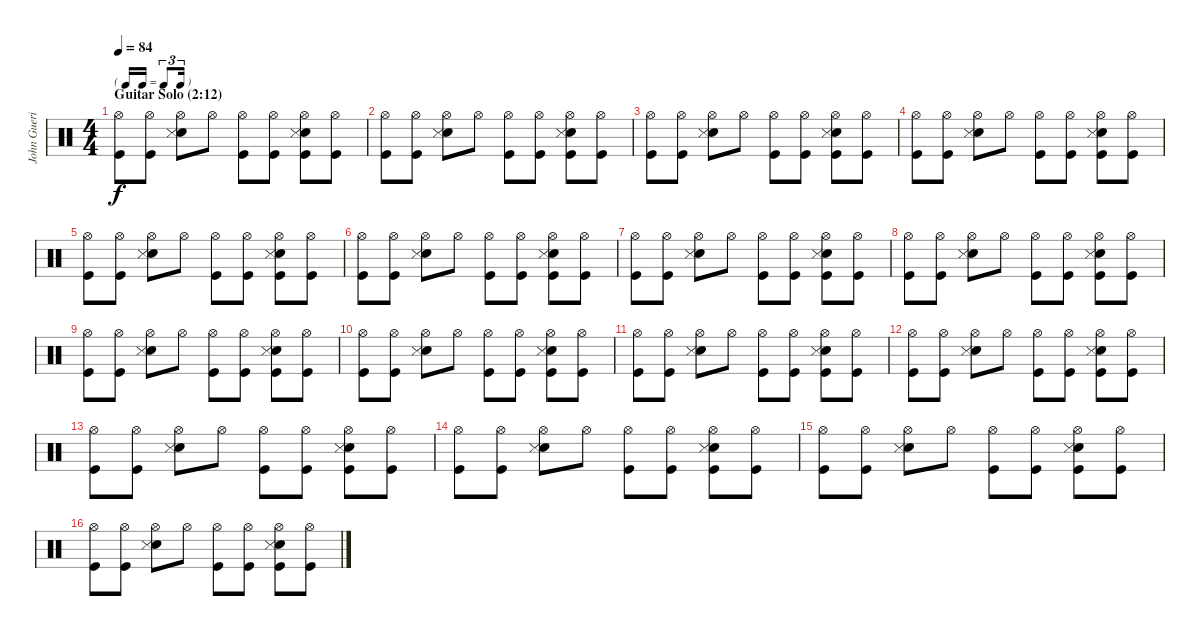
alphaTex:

\track ("John Guerin - Drums" "John Gueri") {instrument percussion}
\staff {score}
\articulation defaults
\ts (4 4)
\tf triplet16th
\section ("" "Guitar Solo (2:12)")
\tempo 84
\clef neutral
\ks c
("Hi-Hat (open)" "Kick (hit)").8{dy f} ("Hi-Hat (open)" "Kick (hit)").8 ("Hi-Hat (open)" "Electric Snare (hit)" "Snare (side stick) 3").8 "Hi-Hat (open)".8 ("Hi-Hat (open)" "Kick (hit)").8 ("Hi-Hat (open)" "Kick (hit)").8 ("Hi-Hat (open)" "Electric Snare (hit)" "Snare (side stick) 3" "Kick (hit)").8 ("Hi-Hat (open)" "Kick (hit)").8 |
("Hi-Hat (open)" "Kick (hit)").8 ("Hi-Hat (open)" "Kick (hit)").8 ("Hi-Hat (open)" "Electric Snare (hit)" "Snare (side stick) 3").8 "Hi-Hat (open)".8 ("Hi-Hat (open)" "Kick (hit)").8 ("Hi-Hat (open)" "Kick (hit)").8 ("Hi-Hat (open)" "Electric Snare (hit)" "Snare (side stick) 3" "Kick (hit)").8 ("Hi-Hat (open)" "Kick (hit)").8 |
("Hi-Hat (open)" "Kick (hit)").8 ("Hi-Hat (open)" "Kick (hit)").8 ("Hi-Hat (open)" "Electric Snare (hit)" "Snare (side stick) 3").8 "Hi-Hat (open)".8 ("Hi-Hat (open)" "Kick (hit)").8 ("Hi-Hat (open)" "Kick (hit)").8 ("Hi-Hat (open)" "Electric Snare (hit)" "Snare (side stick) 3" "Kick (hit)").8 ("Hi-Hat (open)" "Kick (hit)").8 |
("Hi-Hat (open)" "Kick (hit)").8 ("Hi-Hat (open)" "Kick (hit)").8 ("Hi-Hat (open)" "Electric Snare (hit)" "Snare (side stick) 3").8 "Hi-Hat (open)".8 ("Hi-Hat (open)" "Kick (hit)").8 ("Hi-Hat (open)" "Kick (hit)").8 ("Hi-Hat (open)" "Electric Snare (hit)" "Snare (side stick) 3" "Kick (hit)").8 ("Hi-Hat (open)" "Kick (hit)").8 |
("Hi-Hat (open)" "Kick (hit)").8 ("Hi-Hat (open)" "Kick (hit)").8 ("Hi-Hat (open)" "Electric Snare (hit)" "Snare (side stick) 3").8 "Hi-Hat (open)".8 ("Hi-Hat (open)" "Kick (hit)").8 ("Hi-Hat (open)" "Kick (hit)").8 ("Hi-Hat (open)" "Electric Snare (hit)" "Snare (side stick) 3" "Kick (hit)").8 ("Hi-Hat (open)" "Kick (hit)").8 |
("Hi-Hat (open)" "Kick (hit)").8 ("Hi-Hat (open)" "Kick (hit)").8 ("Hi-Hat (open)" "Electric Snare (hit)" "Snare (side stick) 3").8 "Hi-Hat (open)".8 ("Hi-Hat (open)" "Kick (hit)").8 ("Hi-Hat (open)" "Kick (hit)").8 ("Hi-Hat (open)" "Electric Snare (hit)" "Snare (side stick) 3" "Kick (hit)").8 ("Hi-Hat (open)" "Kick (hit)").8 |
("Hi-Hat (open)" "Kick (hit)").8 ("Hi-Hat (open)" "Kick (hit)").8 ("Hi-Hat (open)" "Electric Snare (hit)" "Snare (side stick) 3").8 "Hi-Hat (open)".8 ("Hi-Hat (open)" "Kick (hit)").8 ("Hi-Hat (open)" "Kick (hit)").8 ("Hi-Hat (open)" "Electric Snare (hit)" "Snare (side stick) 3" "Kick (hit)").8 ("Hi-Hat (open)" "Kick (hit)").8 |
("Hi-Hat (open)" "Kick (hit)").8 ("Hi-Hat (open)" "Kick (hit)").8 ("Hi-Hat (open)" "Electric Snare (hit)" "Snare (side stick) 3").8 "Hi-Hat (open)".8 ("Hi-Hat (open)" "Kick (hit)").8 ("Hi-Hat (open)" "Kick (hit)").8 ("Hi-Hat (open)" "Electric Snare (hit)" "Snare (side stick) 3" "Kick (hit)").8 ("Hi-Hat (open)" "Kick (hit)").8 |
("Hi-Hat (open)" "Kick (hit)").8 ("Hi-Hat (open)" "Kick (hit)").8 ("Hi-Hat (open)" "Electric Snare (hit)" "Snare (side stick) 3").8 "Hi-Hat (open)".8 ("Hi-Hat (open)" "Kick (hit)").8 ("Hi-Hat (open)" "Kick (hit)").8 ("Hi-Hat (open)" "Electric Snare (hit)" "Snare (side stick) 3" "Kick (hit)").8 ("Hi-Hat (open)" "Kick (hit)").8 |
("Hi-Hat (open)" "Kick (hit)").8 ("Hi-Hat (open)" "Kick (hit)").8 ("Hi-Hat (open)" "Electric Snare (hit)" "Snare (side stick) 3").8 "Hi-Hat (open)".8 ("Hi-Hat (open)" "Kick (hit)").8 ("Hi-Hat (open)" "Kick (hit)").8 ("Hi-Hat (open)" "Electric Snare (hit)" "Snare (side stick) 3" "Kick (hit)").8 ("Hi-Hat (open)" "Kick (hit)").8 |
("Hi-Hat (open)" "Kick (hit)").8 ("Hi-Hat (open)" "Kick (hit)").8 ("Hi-Hat (open)" "Electric Snare (hit)" "Snare (side stick) 3").8 "Hi-Hat (open)".8 ("Hi-Hat (open)" "Kick (hit)").8 ("Hi-Hat (open)" "Kick (hit)").8 ("Hi-Hat (open)" "Electric Snare (hit)" "Snare (side stick) 3" "Kick (hit)").8 ("Hi-Hat (open)" "Kick (hit)").8 |
("Hi-Hat (open)" "Kick (hit)").8 ("Hi-Hat (open)" "Kick (hit)").8 ("Hi-Hat (open)" "Electric Snare (hit)" "Snare (side stick) 3").8 "Hi-Hat (open)".8 ("Hi-Hat (open)" "Kick (hit)").8 ("Hi-Hat (open)" "Kick (hit)").8 ("Hi-Hat (open)" "Electric Snare (hit)" "Snare (side stick) 3" "Kick (hit)").8 ("Hi-Hat (open)" "Kick (hit)").8 |
("Hi-Hat (open)" "Kick (hit)").8 ("Hi-Hat (open)" "Kick (hit)").8 ("Hi-Hat (open)" "Electric Snare (hit)" "Snare (side stick) 3").8 "Hi-Hat (open)".8 ("Hi-Hat (open)" "Kick (hit)").8 ("Hi-Hat (open)" "Kick (hit)").8 ("Hi-Hat (open)" "Electric Snare (hit)" "Snare (side stick) 3" "Kick (hit)").8 ("Hi-Hat (open)" "Kick (hit)").8 |
("Hi-Hat (open)" "Kick (hit)").8 ("Hi-Hat (open)" "Kick (hit)").8 ("Hi-Hat (open)" "Electric Snare (hit)" "Snare (side stick) 3").8 "Hi-Hat (open)".8 ("Hi-Hat (open)" "Kick (hit)").8 ("Hi-Hat (open)" "Kick (hit)").8 ("Hi-Hat (open)" "Electric Snare (hit)" "Snare (side stick) 3" "Kick (hit)").8 ("Hi-Hat (open)" "Kick (hit)").8 |
("Hi-Hat (open)" "Kick (hit)").8 ("Hi-Hat (open)" "Kick (hit)").8 ("Hi-Hat (open)" "Electric Snare (hit)" "Snare (side stick) 3").8 "Hi-Hat (open)".8 ("Hi-Hat (open)" "Kick (hit)").8 ("Hi-Hat (open)" "Kick (hit)").8 ("Hi-Hat (open)" "Electric Snare (hit)" "Snare (side stick) 3" "Kick (hit)").8 ("Hi-Hat (open)" "Kick (hit)").8 |
("Hi-Hat (open)" "Kick (hit)").8 ("Hi-Hat (open)" "Kick (hit)").8 ("Hi-Hat (open)" "Electric Snare (hit)" "Snare (side stick) 3").8 "Hi-Hat (open)".8 ("Hi-Hat (open)" "Kick (hit)").8 ("Hi-Hat (open)" "Kick (hit)").8 ("Hi-Hat (open)" "Electric Snare (hit)" "Snare (side stick) 3" "Kick (hit)").8 ("Hi-Hat (open)" "Kick (hit)").8
